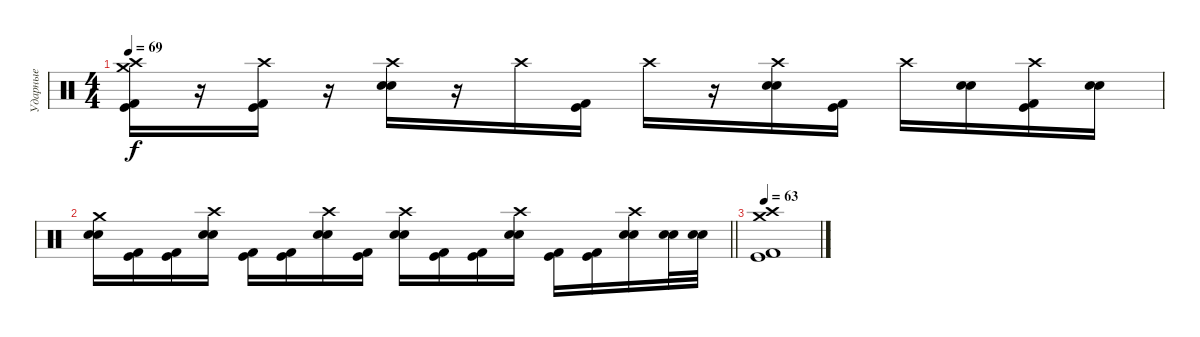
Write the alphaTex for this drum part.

\track ("Ударные" "Ударные") {instrument percussion}
\staff {score}
\articulation defaults
\ts (4 4)
\tempo 69
\clef neutral
\ks c
("Crash medium (hit)" "Crash high (hit)" "Kick (hit) 2" "Kick (hit)").16{dy f} r.16 ("Crash high (hit)" "Kick (hit) 2" "Kick (hit)").16 r.16 ("Crash high (hit)" "Electric Snare (hit)" "Electric Snare (hit)").16 r.16 "Crash high (hit)".16 ("Kick (hit) 2" "Kick (hit)").16 "Crash high (hit)".16 r.16 ("Crash high (hit)" "Electric Snare (hit)" "Electric Snare (hit)").16 ("Kick (hit) 2" "Kick (hit)").16 "Crash high (hit)".16 ("Electric Snare (hit)" "Electric Snare (hit)").16 ("Crash high (hit)" "Kick (hit) 2" "Kick (hit)").16 ("Electric Snare (hit)" "Electric Snare (hit)").16 |
\barLineRight lightlight
("Crash medium (hit)" "Electric Snare (hit)" "Electric Snare (hit)").16 ("Kick (hit) 2" "Kick (hit)").16 ("Kick (hit) 2" "Kick (hit)").16 ("Crash high (hit)" "Electric Snare (hit)" "Electric Snare (hit)").16 ("Kick (hit) 2" "Kick (hit)").16 ("Kick (hit) 2" "Kick (hit)").16 ("Crash high (hit)" "Electric Snare (hit)" "Electric Snare (hit)").16 ("Kick (hit) 2" "Kick (hit)").16 ("Crash high (hit)" "Electric Snare (hit)" "Electric Snare (hit)").16 ("Kick (hit) 2" "Kick (hit)").16 ("Kick (hit) 2" "Kick (hit)").16 ("Crash high (hit)" "Electric Snare (hit)" "Electric Snare (hit)").16 ("Kick (hit) 2" "Kick (hit)").16 ("Kick (hit) 2" "Kick (hit)").16 ("Crash high (hit)" "Electric Snare (hit)" "Electric Snare (hit)").16 ("Electric Snare (hit)" "Electric Snare (hit)").32 ("Electric Snare (hit)" "Electric Snare (hit)").32 |
\tempo 63
("Crash medium (hit)" "Crash high (hit)" "Kick (hit) 2" "Kick (hit)").1
